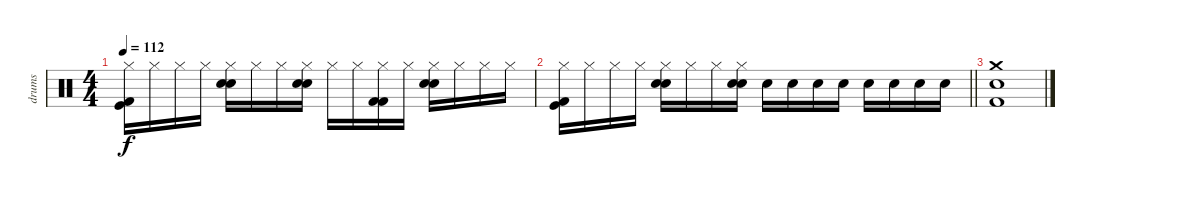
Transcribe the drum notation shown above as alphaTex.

\track ("drums" "drums") {instrument percussion}
\staff {score}
\articulation defaults
\ts (4 4)
\tempo 112
\clef neutral
\ks c
("Hi-Hat (closed)" "Kick (hit) 2" "Kick (hit)").16{dy f} "Hi-Hat (closed)".16 "Hi-Hat (closed)".16 "Hi-Hat (closed)".16 ("Hi-Hat (closed)" "Snare (hit) 2" "Electric Snare (hit)").16 "Hi-Hat (closed)".16 "Hi-Hat (closed)".16 ("Hi-Hat (closed)" "Snare (hit) 2" "Electric Snare (hit)").16 "Hi-Hat (closed)".16 "Hi-Hat (closed)".16 ("Hi-Hat (closed)" "Kick (hit) 2" "Kick (hit) 2").16 "Hi-Hat (closed)".16 ("Hi-Hat (closed)" "Snare (hit) 2" "Electric Snare (hit)").16 "Hi-Hat (closed)".16 "Hi-Hat (closed)".16 "Hi-Hat (closed)".16 |
\barLineRight lightlight
("Hi-Hat (closed)" "Kick (hit) 2" "Kick (hit)").16 "Hi-Hat (closed)".16 "Hi-Hat (closed)".16 "Hi-Hat (closed)".16 ("Hi-Hat (closed)" "Snare (hit) 2" "Electric Snare (hit)").16 "Hi-Hat (closed)".16 "Hi-Hat (closed)".16 ("Hi-Hat (closed)" "Snare (hit) 2" "Electric Snare (hit)").16 "Snare (hit) 2".16 "Snare (hit) 2".16 "Snare (hit) 2".16 "Snare (hit) 2".16 "Snare (hit) 2".16 "Snare (hit) 2".16 "Snare (hit) 2".16 "Snare (hit) 2".16 |
("Kick (hit) 2" "Snare (hit) 2" "Crash medium (hit)").1
